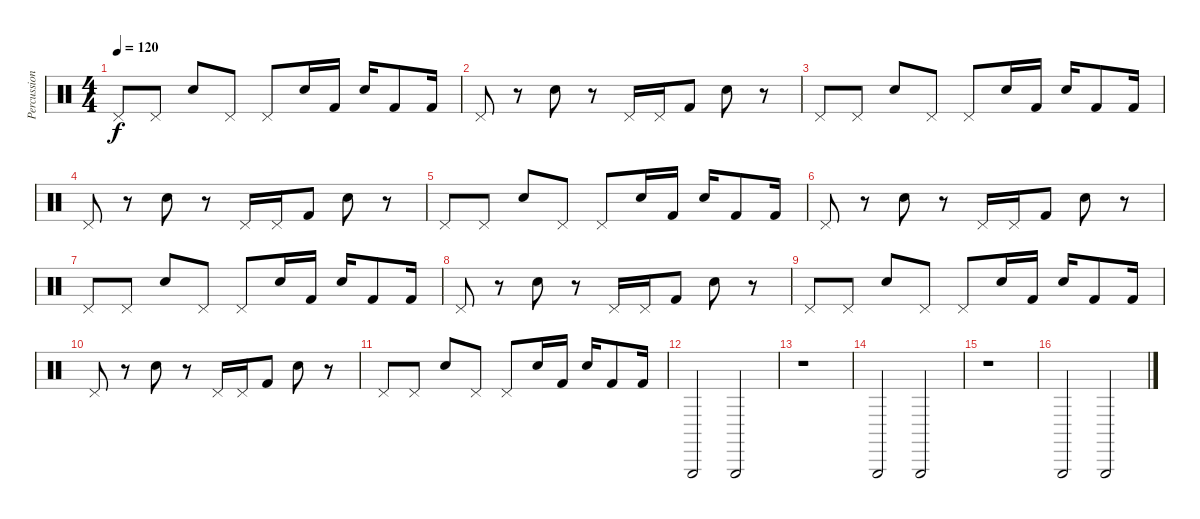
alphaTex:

\track ("Percussion" "Percussion") {instrument percussion}
\staff {score}
\articulation defaults
\ts (4 4)
\tempo 120
\clef neutral
\ks c "Pedal Hi-Hat (hit)".8{dy f} "Pedal Hi-Hat (hit)".8 "Electric Snare (hit)".8 "Pedal Hi-Hat (hit)".8 "Pedal Hi-Hat (hit)".8 "Electric Snare (hit)".16 "Kick (hit) 2".16 "Electric Snare (hit)".16 "Kick (hit) 2".8 "Kick (hit) 2".16
|
"Pedal Hi-Hat (hit)".8 r.8 "Electric Snare (hit)".8 r.8 "Pedal Hi-Hat (hit)".16 "Pedal Hi-Hat (hit)".16 "Kick (hit) 2".8 "Electric Snare (hit)".8 r.8 |
"Pedal Hi-Hat (hit)".8 "Pedal Hi-Hat (hit)".8 "Electric Snare (hit)".8 "Pedal Hi-Hat (hit)".8 "Pedal Hi-Hat (hit)".8 "Electric Snare (hit)".16 "Kick (hit) 2".16 "Electric Snare (hit)".16 "Kick (hit) 2".8 "Kick (hit) 2".16 |
"Pedal Hi-Hat (hit)".8 r.8 "Electric Snare (hit)".8 r.8 "Pedal Hi-Hat (hit)".16 "Pedal Hi-Hat (hit)".16 "Kick (hit) 2".8 "Electric Snare (hit)".8 r.8 |
"Pedal Hi-Hat (hit)".8 "Pedal Hi-Hat (hit)".8 "Electric Snare (hit)".8 "Pedal Hi-Hat (hit)".8 "Pedal Hi-Hat (hit)".8 "Electric Snare (hit)".16 "Kick (hit) 2".16 "Electric Snare (hit)".16 "Kick (hit) 2".8 "Kick (hit) 2".16 |
"Pedal Hi-Hat (hit)".8 r.8 "Electric Snare (hit)".8 r.8 "Pedal Hi-Hat (hit)".16 "Pedal Hi-Hat (hit)".16 "Kick (hit) 2".8 "Electric Snare (hit)".8 r.8 |
"Pedal Hi-Hat (hit)".8 "Pedal Hi-Hat (hit)".8 "Electric Snare (hit)".8 "Pedal Hi-Hat (hit)".8 "Pedal Hi-Hat (hit)".8 "Electric Snare (hit)".16 "Kick (hit) 2".16 "Electric Snare (hit)".16 "Kick (hit) 2".8 "Kick (hit) 2".16 |
"Pedal Hi-Hat (hit)".8 r.8 "Electric Snare (hit)".8 r.8 "Pedal Hi-Hat (hit)".16 "Pedal Hi-Hat (hit)".16 "Kick (hit) 2".8 "Electric Snare (hit)".8 r.8 |
"Pedal Hi-Hat (hit)".8 "Pedal Hi-Hat (hit)".8 "Electric Snare (hit)".8 "Pedal Hi-Hat (hit)".8 "Pedal Hi-Hat (hit)".8 "Electric Snare (hit)".16 "Kick (hit) 2".16 "Electric Snare (hit)".16 "Kick (hit) 2".8 "Kick (hit) 2".16 |
"Pedal Hi-Hat (hit)".8 r.8 "Electric Snare (hit)".8 r.8 "Pedal Hi-Hat (hit)".16 "Pedal Hi-Hat (hit)".16 "Kick (hit) 2".8 "Electric Snare (hit)".8 r.8 |
"Pedal Hi-Hat (hit)".8 "Pedal Hi-Hat (hit)".8 "Electric Snare (hit)".8 "Pedal Hi-Hat (hit)".8 "Pedal Hi-Hat (hit)".8 "Electric Snare (hit)".16 "Kick (hit) 2".16 "Electric Snare (hit)".16 "Kick (hit) 2".8 "Kick (hit) 2".16 |
"Triangle (hit)".2 "Triangle (hit)".2 |
r.1 |
"Triangle (hit)".2 "Triangle (hit)".2 |
r.1 |
"Triangle (hit)".2 "Triangle (hit)".2
